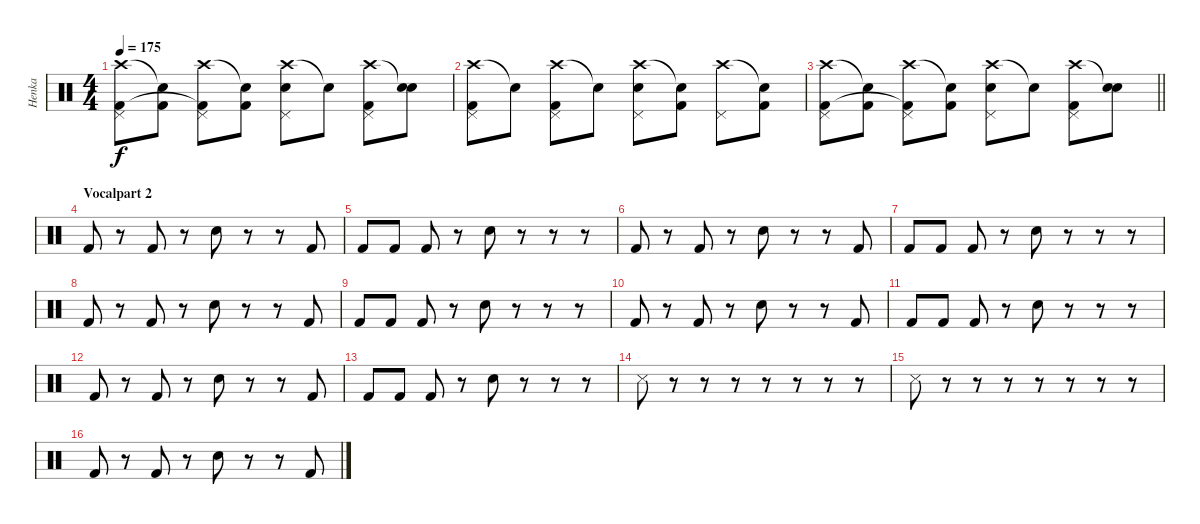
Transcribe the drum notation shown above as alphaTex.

\track ("Henka" "Henka") {instrument percussion}
\staff {score}
\articulation defaults
\ts (4 4)
\tempo 175
\clef neutral
\ks c
("Crash high (hit)" "Pedal Hi-Hat (hit)" "Kick (hit) 2").8{dy f} ("Snare (hit)"{t} "Kick (hit) 2").8 ("Crash high (hit)" "Pedal Hi-Hat (hit)" "Kick (hit) 2"{t}).8 ("Snare (hit)"{t} "Kick (hit) 2").8 ("Crash high (hit)" "Pedal Hi-Hat (hit)" "Snare (hit) 2").8 "Snare (hit)"{t}.8 ("Crash high (hit)" "Pedal Hi-Hat (hit)" "Kick (hit) 2").8 ("Snare (hit)"{t} "Snare (hit) 2").8 |
("Crash high (hit)" "Pedal Hi-Hat (hit)" "Kick (hit) 2").8 "Snare (hit)"{t}.8 ("Crash high (hit)" "Pedal Hi-Hat (hit)" "Kick (hit) 2").8 "Snare (hit)"{t}.8 ("Crash high (hit)" "Pedal Hi-Hat (hit)" "Snare (hit) 2").8 ("Snare (hit)"{t} "Kick (hit) 2").8 ("Crash high (hit)" "Pedal Hi-Hat (hit)").8 ("Snare (hit)"{t} "Kick (hit) 2").8 |
\barLineRight lightlight
("Crash high (hit)" "Pedal Hi-Hat (hit)" "Kick (hit) 2").8 ("Snare (hit)"{t} "Kick (hit) 2").8 ("Crash high (hit)" "Pedal Hi-Hat (hit)" "Kick (hit) 2"{t}).8 ("Snare (hit)"{t} "Kick (hit) 2").8 ("Crash high (hit)" "Pedal Hi-Hat (hit)" "Snare (hit) 2").8 "Snare (hit)"{t}.8 ("Crash high (hit)" "Pedal Hi-Hat (hit)" "Kick (hit) 2").8 ("Snare (hit)"{t} "Snare (hit) 2").8 |
\section ("" "Vocalpart 2")
"Kick (hit) 2".8 r.8 "Kick (hit) 2".8 r.8 "Snare (hit) 2".8 r.8 r.8 "Kick (hit) 2".8 |
"Kick (hit) 2".8 "Kick (hit) 2".8 "Kick (hit) 2".8 r.8 "Snare (hit) 2".8 r.8 r.8 r.8 |
"Kick (hit) 2".8 r.8 "Kick (hit) 2".8 r.8 "Snare (hit) 2".8 r.8 r.8 "Kick (hit) 2".8 |
"Kick (hit) 2".8 "Kick (hit) 2".8 "Kick (hit) 2".8 r.8 "Snare (hit) 2".8 r.8 r.8 r.8 |
"Kick (hit) 2".8 r.8 "Kick (hit) 2".8 r.8 "Snare (hit) 2".8 r.8 r.8 "Kick (hit) 2".8 |
"Kick (hit) 2".8 "Kick (hit) 2".8 "Kick (hit) 2".8 r.8 "Snare (hit) 2".8 r.8 r.8 r.8 |
"Kick (hit) 2".8 r.8 "Kick (hit) 2".8 r.8 "Snare (hit) 2".8 r.8 r.8 "Kick (hit) 2".8 |
"Kick (hit) 2".8 "Kick (hit) 2".8 "Kick (hit) 2".8 r.8 "Snare (hit) 2".8 r.8 r.8 r.8 |
"Kick (hit) 2".8 r.8 "Kick (hit) 2".8 r.8 "Snare (hit) 2".8 r.8 r.8 "Kick (hit) 2".8 |
"Kick (hit) 2".8 "Kick (hit) 2".8 "Kick (hit) 2".8 r.8 "Snare (hit) 2".8 r.8 r.8 r.8 |
"Metronome (hit)".8 r.8 r.8 r.8 r.8 r.8 r.8 r.8 |
"Metronome (hit)".8 r.8 r.8 r.8 r.8 r.8 r.8 r.8 |
"Kick (hit) 2".8 r.8 "Kick (hit) 2".8 r.8 "Snare (hit) 2".8 r.8 r.8 "Kick (hit) 2".8
